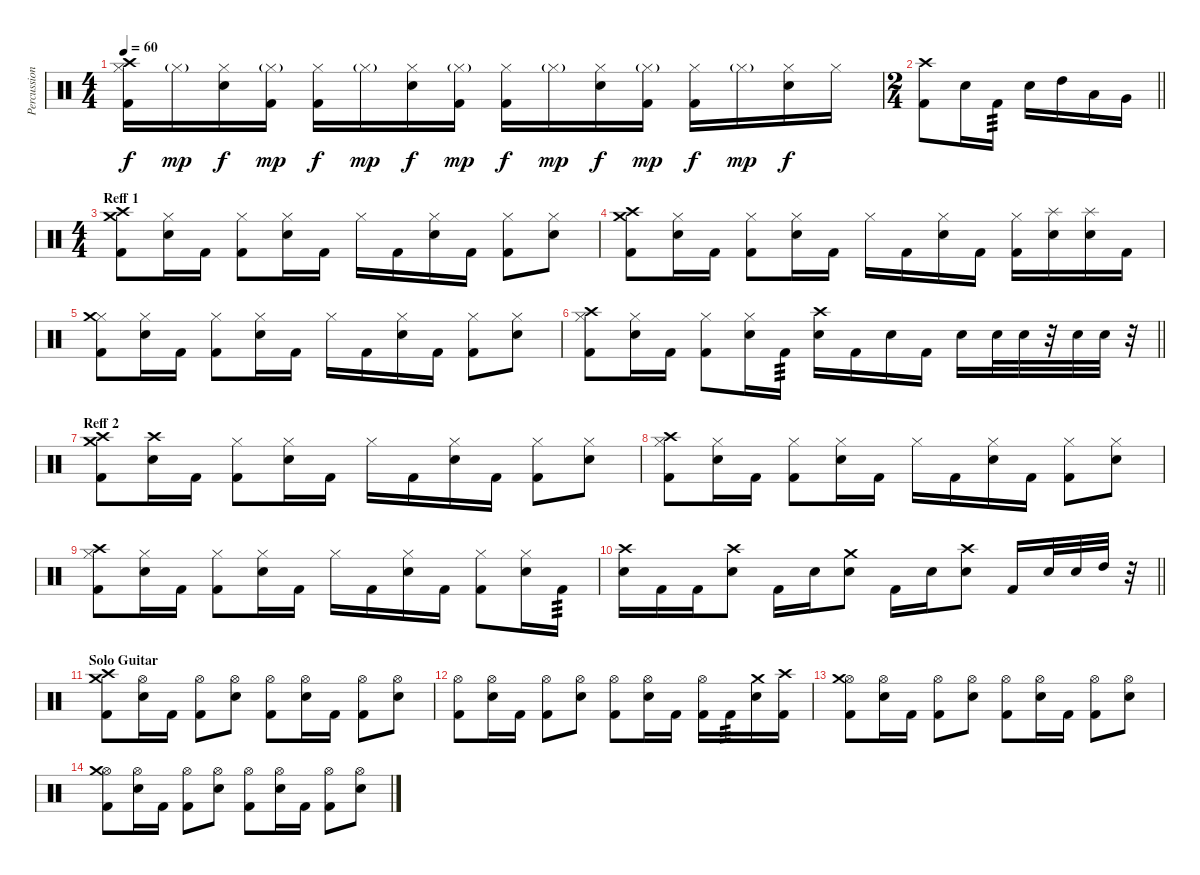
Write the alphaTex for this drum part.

\track ("Percussion" "Percussion") {instrument percussion}
\staff {score}
\articulation defaults
\ts (4 4)
\tempo 60
\clef neutral
\ks c
("Hi-Hat (closed)" "Crash high (hit)" "Kick (hit) 2").16{dy f} "Hi-Hat (closed)"{g}.16{dy mp} ("Hi-Hat (closed)" "Electric Snare (hit)").16{dy f} ("Hi-Hat (closed)"{g} "Kick (hit) 2").16{dy mp} ("Hi-Hat (closed)" "Kick (hit) 2").16{dy f} "Hi-Hat (closed)"{g}.16{dy mp} ("Hi-Hat (closed)" "Electric Snare (hit)").16{dy f} ("Hi-Hat (closed)"{g} "Kick (hit) 2").16{dy mp} ("Hi-Hat (closed)" "Kick (hit) 2").16{dy f} "Hi-Hat (closed)"{g}.16{dy mp} ("Hi-Hat (closed)" "Electric Snare (hit)").16{dy f} ("Hi-Hat (closed)"{g} "Kick (hit) 2").16{dy mp} ("Hi-Hat (closed)" "Kick (hit) 2").16{dy f} "Hi-Hat (closed)"{g}.16{dy mp} ("Hi-Hat (closed)" "Electric Snare (hit)").16{dy f} "Hi-Hat (closed)".16 |
\ts (2 4)
\barLineRight lightlight
("Crash high (hit)" "Kick (hit) 2").8 "Electric Snare (hit)".16 "Kick (hit) 2".16{tp 3} "Electric Snare (hit)".16 "High Tom (hit)".16 "Low Tom (hit)".16 "Very Low Tom (hit)".16 |
\ts (4 4)
\section ("" "Reff 1")
("Crash high (hit)" "Crash medium (hit)" "Kick (hit) 2").8 ("Hi-Hat (closed)" "Electric Snare (hit)").16 "Kick (hit) 2".16 ("Hi-Hat (closed)" "Kick (hit) 2").8 ("Hi-Hat (closed)" "Electric Snare (hit)").16 "Kick (hit) 2".16 "Hi-Hat (closed)".16 "Kick (hit) 2".16 ("Hi-Hat (closed)" "Electric Snare (hit)").16 "Kick (hit) 2".16 ("Hi-Hat (closed)" "Kick (hit) 2").8 ("Hi-Hat (closed)" "Electric Snare (hit)").8 |
("Crash high (hit)" "Crash medium (hit)" "Kick (hit) 2").8 ("Hi-Hat (closed)" "Electric Snare (hit)").16 "Kick (hit) 2".16 ("Hi-Hat (closed)" "Kick (hit) 2").8 ("Hi-Hat (closed)" "Electric Snare (hit)").16 "Kick (hit) 2".16 "Hi-Hat (closed)".16 "Kick (hit) 2".16 ("Hi-Hat (closed)" "Electric Snare (hit)").16 "Kick (hit) 2".16 ("Hi-Hat (closed)" "Kick (hit) 2").16 ("Splash (hit)" "Electric Snare (hit)").16 ("Splash (hit)" "Electric Snare (hit)").16 "Kick (hit) 2".16 |
("Hi-Hat (closed)" "Crash medium (hit)" "Kick (hit) 2").8 ("Hi-Hat (closed)" "Electric Snare (hit)").16 "Kick (hit) 2".16 ("Hi-Hat (closed)" "Kick (hit) 2").8 ("Hi-Hat (closed)" "Electric Snare (hit)").16 "Kick (hit) 2".16 "Hi-Hat (closed)".16 "Kick (hit) 2".16 ("Hi-Hat (closed)" "Electric Snare (hit)").16 "Kick (hit) 2".16 ("Hi-Hat (closed)" "Kick (hit) 2").8 ("Hi-Hat (closed)" "Electric Snare (hit)").8 |
\barLineRight lightlight
("Hi-Hat (closed)" "Crash high (hit)" "Kick (hit) 2").8 ("Hi-Hat (closed)" "Electric Snare (hit)").16 "Kick (hit) 2".16 ("Hi-Hat (closed)" "Kick (hit) 2").8 ("Hi-Hat (closed)" "Electric Snare (hit)").16 "Kick (hit) 2".16{tp 3} ("Crash high (hit)" "Electric Snare (hit)").16 "Kick (hit) 2".16 "Electric Snare (hit)".16 "Kick (hit) 2".16 "Electric Snare (hit)".16 "Electric Snare (hit)".32 "Electric Snare (hit)".32 r.32 "Electric Snare (hit)".32 "Electric Snare (hit)".32 r.32 |
\section ("" "Reff 2")
("Crash high (hit)" "Crash medium (hit)" "Kick (hit) 2").8 ("Crash high (hit)" "Electric Snare (hit)").16 "Kick (hit) 2".16 ("Hi-Hat (closed)" "Kick (hit) 2").8 ("Hi-Hat (closed)" "Electric Snare (hit)").16 "Kick (hit) 2".16 "Hi-Hat (closed)".16 "Kick (hit) 2".16 ("Hi-Hat (closed)" "Electric Snare (hit)").16 "Kick (hit) 2".16 ("Hi-Hat (closed)" "Kick (hit) 2").8 ("Hi-Hat (closed)" "Electric Snare (hit)").8 |
("Hi-Hat (closed)" "Crash high (hit)" "Kick (hit) 2").8 ("Hi-Hat (closed)" "Electric Snare (hit)").16 "Kick (hit) 2".16 ("Hi-Hat (closed)" "Kick (hit) 2").8 ("Hi-Hat (closed)" "Electric Snare (hit)").16 "Kick (hit) 2".16 "Hi-Hat (closed)".16 "Kick (hit) 2".16 ("Hi-Hat (closed)" "Electric Snare (hit)").16 "Kick (hit) 2".16 ("Hi-Hat (closed)" "Kick (hit) 2").8 ("Hi-Hat (closed)" "Electric Snare (hit)").8 |
("Hi-Hat (closed)" "Crash high (hit)" "Kick (hit) 2").8 ("Hi-Hat (closed)" "Electric Snare (hit)").16 "Kick (hit) 2".16 ("Hi-Hat (closed)" "Kick (hit) 2").8 ("Hi-Hat (closed)" "Electric Snare (hit)").16 "Kick (hit) 2".16 "Hi-Hat (closed)".16 "Kick (hit) 2".16 ("Hi-Hat (closed)" "Electric Snare (hit)").16 "Kick (hit) 2".16 ("Hi-Hat (closed)" "Kick (hit) 2").8 ("Hi-Hat (closed)" "Electric Snare (hit)").16 "Kick (hit) 2".16{tp 3} |
\barLineRight lightlight
("Crash high (hit)" "Electric Snare (hit)").16 "Kick (hit) 2".16 "Kick (hit) 2".16 ("Crash high (hit)" "Electric Snare (hit)").8 "Kick (hit) 2".16 "Electric Snare (hit)".16 ("Electric Snare (hit)" "Crash medium (hit)").8 "Kick (hit) 2".16 "Electric Snare (hit)".16 ("Electric Snare (hit)" "Crash high (hit)").8 "Kick (hit) 2".16 "Electric Snare (hit)".32 "Electric Snare (hit)".32 "High Tom (hit)".32 r.32 |
\section ("" "Solo Guitar")
("Crash high (hit)" "Crash medium (hit)" "Kick (hit) 2").8 ("Hi-Hat (open)" "Electric Snare (hit)").16 "Kick (hit) 2".16 ("Hi-Hat (open)" "Kick (hit) 2").8 ("Hi-Hat (open)" "Electric Snare (hit)").8 ("Hi-Hat (open)" "Kick (hit) 2").8 ("Hi-Hat (open)" "Electric Snare (hit)").16 "Kick (hit) 2".16 ("Hi-Hat (open)" "Kick (hit) 2").8 ("Hi-Hat (open)" "Electric Snare (hit)").8 |
("Hi-Hat (open)" "Kick (hit) 2").8 ("Hi-Hat (open)" "Electric Snare (hit)").16 "Kick (hit) 2".16 ("Hi-Hat (open)" "Kick (hit) 2").8 ("Hi-Hat (open)" "Electric Snare (hit)").8 ("Hi-Hat (open)" "Kick (hit) 2").8 ("Hi-Hat (open)" "Electric Snare (hit)").16 "Kick (hit) 2".16 ("Hi-Hat (open)" "Kick (hit) 2").16 "Kick (hit) 2".16{tp 3} ("Crash medium (hit)" "Electric Snare (hit)").16 ("Crash high (hit)" "Kick (hit) 2").16 |
("Hi-Hat (open)" "Crash medium (hit)" "Kick (hit) 2").8 ("Hi-Hat (open)" "Electric Snare (hit)").16 "Kick (hit) 2".16 ("Hi-Hat (open)" "Kick (hit) 2").8 ("Hi-Hat (open)" "Electric Snare (hit)").8 ("Hi-Hat (open)" "Kick (hit) 2").8 ("Hi-Hat (open)" "Electric Snare (hit)").16 "Kick (hit) 2".16 ("Hi-Hat (open)" "Kick (hit) 2").8 ("Hi-Hat (open)" "Electric Snare (hit)").8 |
("Hi-Hat (open)" "Crash medium (hit)" "Kick (hit) 2").8 ("Hi-Hat (open)" "Electric Snare (hit)").16 "Kick (hit) 2".16 ("Hi-Hat (open)" "Kick (hit) 2").8 ("Hi-Hat (open)" "Electric Snare (hit)").8 ("Hi-Hat (open)" "Kick (hit) 2").8 ("Hi-Hat (open)" "Electric Snare (hit)").16 "Kick (hit) 2".16 ("Hi-Hat (open)" "Kick (hit) 2").8 ("Hi-Hat (open)" "Electric Snare (hit)").8
